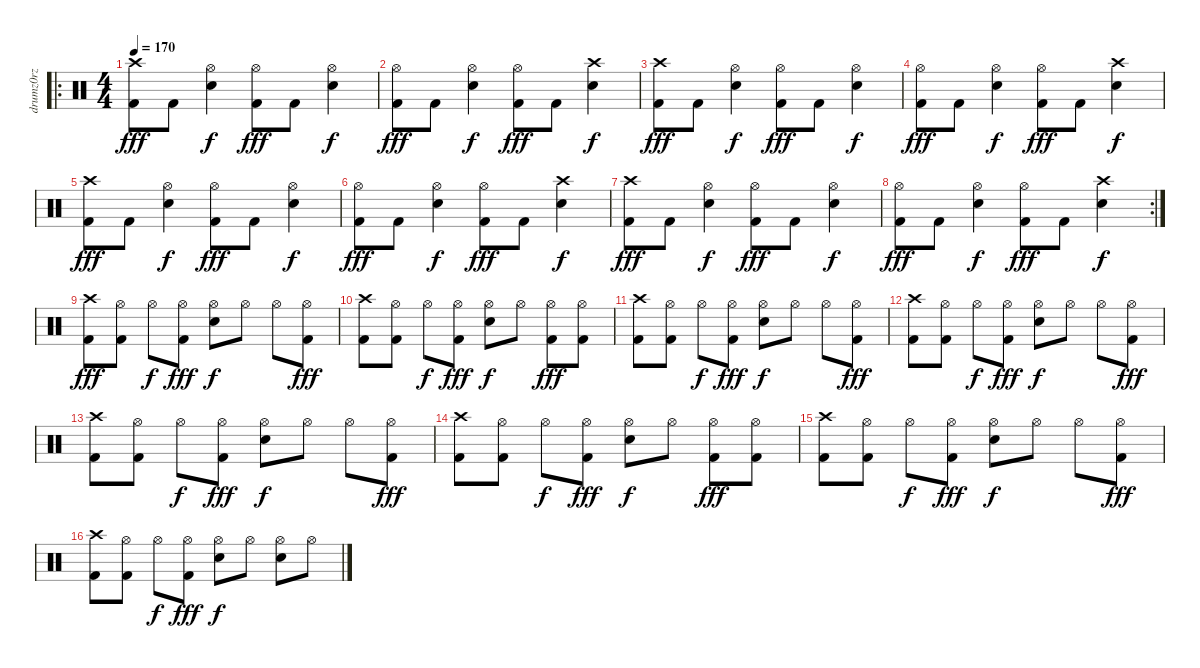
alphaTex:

\track ("drumz0rz" "drumz0rz") {instrument percussion}
\staff {score}
\articulation defaults
\ro
\ts (4 4)
\tempo 170
\clef neutral
\ks c
("Crash high (hit)" "Kick (hit) 2").8{dy fff} "Kick (hit) 2".8 ("Hi-Hat (open)" "Electric Snare (hit)").4{dy f} ("Hi-Hat (open)" "Kick (hit) 2").8{dy fff} "Kick (hit) 2".8 ("Hi-Hat (open)" "Electric Snare (hit)").4{dy f} |
("Hi-Hat (open)" "Kick (hit) 2").8{dy fff} "Kick (hit) 2".8 ("Hi-Hat (open)" "Electric Snare (hit)").4{dy f} ("Hi-Hat (open)" "Kick (hit) 2").8{dy fff} "Kick (hit) 2".8 ("Crash high (hit)" "Electric Snare (hit)").4{dy f} |
("Crash high (hit)" "Kick (hit) 2").8{dy fff} "Kick (hit) 2".8 ("Hi-Hat (open)" "Electric Snare (hit)").4{dy f} ("Hi-Hat (open)" "Kick (hit) 2").8{dy fff} "Kick (hit) 2".8 ("Hi-Hat (open)" "Electric Snare (hit)").4{dy f} |
("Hi-Hat (open)" "Kick (hit) 2").8{dy fff} "Kick (hit) 2".8 ("Hi-Hat (open)" "Electric Snare (hit)").4{dy f} ("Hi-Hat (open)" "Kick (hit) 2").8{dy fff} "Kick (hit) 2".8 ("Crash high (hit)" "Electric Snare (hit)").4{dy f} |
("Crash high (hit)" "Kick (hit) 2").8{dy fff} "Kick (hit) 2".8 ("Hi-Hat (open)" "Electric Snare (hit)").4{dy f} ("Hi-Hat (open)" "Kick (hit) 2").8{dy fff} "Kick (hit) 2".8 ("Hi-Hat (open)" "Electric Snare (hit)").4{dy f} |
("Hi-Hat (open)" "Kick (hit) 2").8{dy fff} "Kick (hit) 2".8 ("Hi-Hat (open)" "Electric Snare (hit)").4{dy f} ("Hi-Hat (open)" "Kick (hit) 2").8{dy fff} "Kick (hit) 2".8 ("Crash high (hit)" "Electric Snare (hit)").4{dy f} |
("Crash high (hit)" "Kick (hit) 2").8{dy fff} "Kick (hit) 2".8 ("Hi-Hat (open)" "Electric Snare (hit)").4{dy f} ("Hi-Hat (open)" "Kick (hit) 2").8{dy fff} "Kick (hit) 2".8 ("Hi-Hat (open)" "Electric Snare (hit)").4{dy f} |
\rc 2
("Hi-Hat (open)" "Kick (hit) 2").8{dy fff} "Kick (hit) 2".8 ("Hi-Hat (open)" "Electric Snare (hit)").4{dy f} ("Hi-Hat (open)" "Kick (hit) 2").8{dy fff} "Kick (hit) 2".8 ("Crash high (hit)" "Electric Snare (hit)").4{dy f} |
("Crash high (hit)" "Kick (hit) 2").8{dy fff} ("Hi-Hat (open)" "Kick (hit) 2").8 "Hi-Hat (open)".8{dy f} ("Hi-Hat (open)" "Kick (hit) 2").8{dy fff} ("Hi-Hat (open)" "Electric Snare (hit)").8{dy f} "Hi-Hat (open)".8 "Hi-Hat (open)".8 ("Hi-Hat (open)" "Kick (hit) 2").8{dy fff} |
("Crash high (hit)" "Kick (hit) 2").8 ("Hi-Hat (open)" "Kick (hit) 2").8 "Hi-Hat (open)".8{dy f} ("Hi-Hat (open)" "Kick (hit) 2").8{dy fff} ("Hi-Hat (open)" "Electric Snare (hit)").8{dy f} "Hi-Hat (open)".8 ("Hi-Hat (open)" "Kick (hit) 2").8{dy fff} ("Hi-Hat (open)" "Kick (hit) 2").8 |
("Crash high (hit)" "Kick (hit) 2").8 ("Hi-Hat (open)" "Kick (hit) 2").8 "Hi-Hat (open)".8{dy f} ("Hi-Hat (open)" "Kick (hit) 2").8{dy fff} ("Hi-Hat (open)" "Electric Snare (hit)").8{dy f} "Hi-Hat (open)".8 "Hi-Hat (open)".8 ("Hi-Hat (open)" "Kick (hit) 2").8{dy fff} |
("Crash high (hit)" "Kick (hit) 2").8 ("Hi-Hat (open)" "Kick (hit) 2").8 "Hi-Hat (open)".8{dy f} ("Hi-Hat (open)" "Kick (hit) 2").8{dy fff} ("Hi-Hat (open)" "Electric Snare (hit)").8{dy f} "Hi-Hat (open)".8 "Hi-Hat (open)".8 ("Hi-Hat (open)" "Kick (hit) 2").8{dy fff} |
("Crash high (hit)" "Kick (hit) 2").8 ("Hi-Hat (open)" "Kick (hit) 2").8 "Hi-Hat (open)".8{dy f} ("Hi-Hat (open)" "Kick (hit) 2").8{dy fff} ("Hi-Hat (open)" "Electric Snare (hit)").8{dy f} "Hi-Hat (open)".8 "Hi-Hat (open)".8 ("Hi-Hat (open)" "Kick (hit) 2").8{dy fff} |
("Crash high (hit)" "Kick (hit) 2").8 ("Hi-Hat (open)" "Kick (hit) 2").8 "Hi-Hat (open)".8{dy f} ("Hi-Hat (open)" "Kick (hit) 2").8{dy fff} ("Hi-Hat (open)" "Electric Snare (hit)").8{dy f} "Hi-Hat (open)".8 ("Hi-Hat (open)" "Kick (hit) 2").8{dy fff} ("Hi-Hat (open)" "Kick (hit) 2").8 |
("Crash high (hit)" "Kick (hit) 2").8 ("Hi-Hat (open)" "Kick (hit) 2").8 "Hi-Hat (open)".8{dy f} ("Hi-Hat (open)" "Kick (hit) 2").8{dy fff} ("Hi-Hat (open)" "Electric Snare (hit)").8{dy f} "Hi-Hat (open)".8 "Hi-Hat (open)".8 ("Hi-Hat (open)" "Kick (hit) 2").8{dy fff} |
("Crash high (hit)" "Kick (hit) 2").8 ("Hi-Hat (open)" "Kick (hit) 2").8 "Hi-Hat (open)".8{dy f} ("Hi-Hat (open)" "Kick (hit) 2").8{dy fff} ("Hi-Hat (open)" "Electric Snare (hit)").8{dy f} "Hi-Hat (open)".8 ("Hi-Hat (open)" "Electric Snare (hit)").8 "Hi-Hat (open)".8
